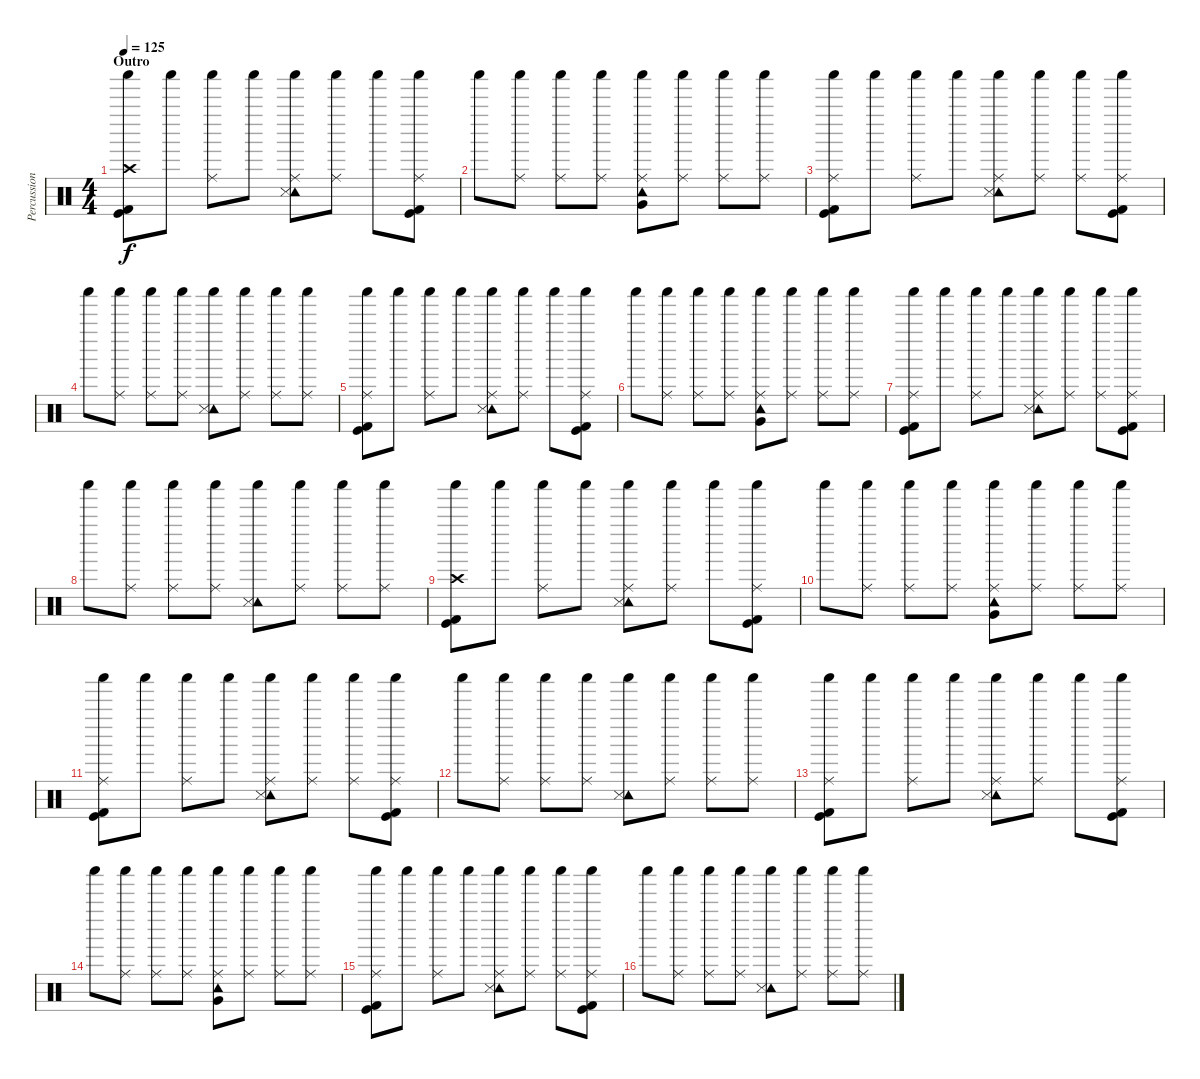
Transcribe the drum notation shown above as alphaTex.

\track ("Percussioni" "Percussion") {instrument percussion}
\staff {score}
\articulation defaults
\ts (4 4)
\section ("" "Outro")
\tempo 125
\clef neutral
\ks c
("Crash high (hit)" "Shaker (hit)" "Kick (hit)" "Kick (hit) 2").8{dy f} "Shaker (hit)".8 ("Shaker (hit)" "Ride (middle)").8 "Shaker (hit)".8 ("Shaker (hit)" "Ride (middle)" "Tambourine (hit)" "Snare (side stick) 3").8 ("Shaker (hit)" "Ride (middle)").8 "Shaker (hit)".8 ("Shaker (hit)" "Ride (middle)" "Kick (hit)" "Kick (hit) 2").8 |
"Shaker (hit)".8 ("Shaker (hit)" "Ride (middle)").8 ("Shaker (hit)" "Ride (middle)").8 ("Shaker (hit)" "Ride (middle)").8 ("Shaker (hit)" "Ride (middle)" "Tambourine (hit)" "Very Low Tom (hit)").8 ("Shaker (hit)" "Ride (middle)").8 ("Shaker (hit)" "Ride (middle)").8 ("Shaker (hit)" "Ride (middle)").8 |
("Shaker (hit)" "Ride (middle)" "Kick (hit)" "Kick (hit) 2").8 "Shaker (hit)".8 ("Shaker (hit)" "Ride (middle)").8 "Shaker (hit)".8 ("Shaker (hit)" "Ride (middle)" "Tambourine (hit)" "Snare (side stick) 3").8 ("Shaker (hit)" "Ride (middle)").8 ("Shaker (hit)" "Ride (middle)").8 ("Shaker (hit)" "Ride (middle)" "Kick (hit)" "Kick (hit) 2").8 |
"Shaker (hit)".8 ("Shaker (hit)" "Ride (middle)").8 ("Shaker (hit)" "Ride (middle)").8 ("Shaker (hit)" "Ride (middle)").8 ("Shaker (hit)" "Tambourine (hit)" "Snare (side stick) 3").8 ("Shaker (hit)" "Ride (middle)").8 ("Shaker (hit)" "Ride (middle)").8 ("Shaker (hit)" "Ride (middle)").8 |
("Shaker (hit)" "Ride (middle)" "Kick (hit)" "Kick (hit) 2").8 "Shaker (hit)".8 ("Shaker (hit)" "Ride (middle)").8 "Shaker (hit)".8 ("Shaker (hit)" "Ride (middle)" "Tambourine (hit)" "Snare (side stick) 3").8 ("Shaker (hit)" "Ride (middle)").8 "Shaker (hit)".8 ("Shaker (hit)" "Ride (middle)" "Kick (hit)" "Kick (hit) 2").8 |
"Shaker (hit)".8 ("Shaker (hit)" "Ride (middle)").8 ("Shaker (hit)" "Ride (middle)").8 ("Shaker (hit)" "Ride (middle)").8 ("Shaker (hit)" "Ride (middle)" "Tambourine (hit)" "Very Low Tom (hit)").8 ("Shaker (hit)" "Ride (middle)").8 ("Shaker (hit)" "Ride (middle)").8 ("Shaker (hit)" "Ride (middle)").8 |
("Shaker (hit)" "Ride (middle)" "Kick (hit)" "Kick (hit) 2").8 "Shaker (hit)".8 ("Shaker (hit)" "Ride (middle)").8 "Shaker (hit)".8 ("Shaker (hit)" "Ride (middle)" "Tambourine (hit)" "Snare (side stick) 3").8 ("Shaker (hit)" "Ride (middle)").8 ("Shaker (hit)" "Ride (middle)").8 ("Shaker (hit)" "Ride (middle)" "Kick (hit)" "Kick (hit) 2").8 |
"Shaker (hit)".8 ("Shaker (hit)" "Ride (middle)").8 ("Shaker (hit)" "Ride (middle)").8 ("Shaker (hit)" "Ride (middle)").8 ("Shaker (hit)" "Tambourine (hit)" "Snare (side stick) 3").8 ("Shaker (hit)" "Ride (middle)").8 ("Shaker (hit)" "Ride (middle)").8 ("Shaker (hit)" "Ride (middle)").8 |
("Crash high (hit)" "Shaker (hit)" "Kick (hit)" "Kick (hit) 2").8 "Shaker (hit)".8 ("Shaker (hit)" "Ride (middle)").8 "Shaker (hit)".8 ("Shaker (hit)" "Ride (middle)" "Tambourine (hit)" "Snare (side stick) 3").8 ("Shaker (hit)" "Ride (middle)").8 "Shaker (hit)".8 ("Shaker (hit)" "Ride (middle)" "Kick (hit)" "Kick (hit) 2").8 |
"Shaker (hit)".8 ("Shaker (hit)" "Ride (middle)").8 ("Shaker (hit)" "Ride (middle)").8 ("Shaker (hit)" "Ride (middle)").8 ("Shaker (hit)" "Ride (middle)" "Tambourine (hit)" "Very Low Tom (hit)").8 ("Shaker (hit)" "Ride (middle)").8 ("Shaker (hit)" "Ride (middle)").8 ("Shaker (hit)" "Ride (middle)").8 |
("Shaker (hit)" "Ride (middle)" "Kick (hit)" "Kick (hit) 2").8 "Shaker (hit)".8 ("Shaker (hit)" "Ride (middle)").8 "Shaker (hit)".8 ("Shaker (hit)" "Ride (middle)" "Tambourine (hit)" "Snare (side stick) 3").8 ("Shaker (hit)" "Ride (middle)").8 ("Shaker (hit)" "Ride (middle)").8 ("Shaker (hit)" "Ride (middle)" "Kick (hit)" "Kick (hit) 2").8 |
"Shaker (hit)".8 ("Shaker (hit)" "Ride (middle)").8 ("Shaker (hit)" "Ride (middle)").8 ("Shaker (hit)" "Ride (middle)").8 ("Shaker (hit)" "Tambourine (hit)" "Snare (side stick) 3").8 ("Shaker (hit)" "Ride (middle)").8 ("Shaker (hit)" "Ride (middle)").8 ("Shaker (hit)" "Ride (middle)").8 |
("Shaker (hit)" "Ride (middle)" "Kick (hit)" "Kick (hit) 2").8 "Shaker (hit)".8 ("Shaker (hit)" "Ride (middle)").8 "Shaker (hit)".8 ("Shaker (hit)" "Ride (middle)" "Tambourine (hit)" "Snare (side stick) 3").8 ("Shaker (hit)" "Ride (middle)").8 "Shaker (hit)".8 ("Shaker (hit)" "Ride (middle)" "Kick (hit)" "Kick (hit) 2").8 |
"Shaker (hit)".8 ("Shaker (hit)" "Ride (middle)").8 ("Shaker (hit)" "Ride (middle)").8 ("Shaker (hit)" "Ride (middle)").8 ("Shaker (hit)" "Ride (middle)" "Tambourine (hit)" "Very Low Tom (hit)").8 ("Shaker (hit)" "Ride (middle)").8 ("Shaker (hit)" "Ride (middle)").8 ("Shaker (hit)" "Ride (middle)").8 |
("Shaker (hit)" "Ride (middle)" "Kick (hit)" "Kick (hit) 2").8 "Shaker (hit)".8 ("Shaker (hit)" "Ride (middle)").8 "Shaker (hit)".8 ("Shaker (hit)" "Ride (middle)" "Tambourine (hit)" "Snare (side stick) 3").8 ("Shaker (hit)" "Ride (middle)").8 ("Shaker (hit)" "Ride (middle)").8 ("Shaker (hit)" "Ride (middle)" "Kick (hit)" "Kick (hit) 2").8 |
"Shaker (hit)".8 ("Shaker (hit)" "Ride (middle)").8 ("Shaker (hit)" "Ride (middle)").8 ("Shaker (hit)" "Ride (middle)").8 ("Shaker (hit)" "Tambourine (hit)" "Snare (side stick) 3").8 ("Shaker (hit)" "Ride (middle)").8 ("Shaker (hit)" "Ride (middle)").8 ("Shaker (hit)" "Ride (middle)").8
